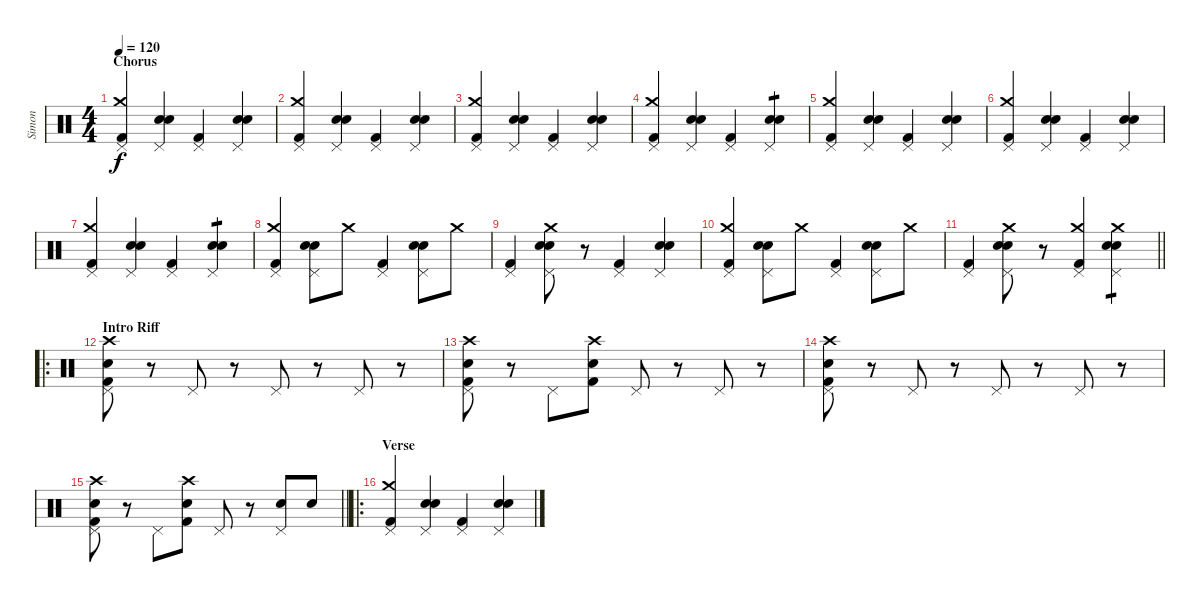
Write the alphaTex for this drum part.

\track ("Simon" "Simon") {instrument percussion}
\staff {score}
\articulation defaults
\ts (4 4)
\section ("" "Chorus")
\tempo 120
\clef neutral
\ks c
("Kick (hit) 2" "Crash medium (hit)" "Pedal Hi-Hat (hit)").4{dy f} ("Snare (hit) 2" "Electric Snare (hit)" "Pedal Hi-Hat (hit)").4 ("Kick (hit) 2" "Pedal Hi-Hat (hit)").4 ("Snare (hit) 2" "Electric Snare (hit)" "Pedal Hi-Hat (hit)").4 |
("Kick (hit) 2" "Crash medium (hit)" "Pedal Hi-Hat (hit)").4 ("Snare (hit) 2" "Electric Snare (hit)" "Pedal Hi-Hat (hit)").4 ("Kick (hit) 2" "Pedal Hi-Hat (hit)").4 ("Snare (hit) 2" "Electric Snare (hit)" "Pedal Hi-Hat (hit)").4 |
("Kick (hit) 2" "Crash medium (hit)" "Pedal Hi-Hat (hit)").4 ("Snare (hit) 2" "Electric Snare (hit)" "Pedal Hi-Hat (hit)").4 ("Kick (hit) 2" "Pedal Hi-Hat (hit)").4 ("Snare (hit) 2" "Electric Snare (hit)" "Pedal Hi-Hat (hit)").4 |
("Kick (hit) 2" "Crash medium (hit)" "Pedal Hi-Hat (hit)").4 ("Snare (hit) 2" "Electric Snare (hit)" "Pedal Hi-Hat (hit)").4 ("Kick (hit) 2" "Pedal Hi-Hat (hit)").4 ("Snare (hit) 2" "Electric Snare (hit)" "Pedal Hi-Hat (hit)").4{tp 1} |
("Kick (hit) 2" "Crash medium (hit)" "Pedal Hi-Hat (hit)").4 ("Snare (hit) 2" "Electric Snare (hit)" "Pedal Hi-Hat (hit)").4 ("Kick (hit) 2" "Pedal Hi-Hat (hit)").4 ("Snare (hit) 2" "Electric Snare (hit)" "Pedal Hi-Hat (hit)").4 |
("Kick (hit) 2" "Crash medium (hit)" "Pedal Hi-Hat (hit)").4 ("Snare (hit) 2" "Electric Snare (hit)" "Pedal Hi-Hat (hit)").4 ("Kick (hit) 2" "Pedal Hi-Hat (hit)").4 ("Snare (hit) 2" "Electric Snare (hit)" "Pedal Hi-Hat (hit)").4 |
("Kick (hit) 2" "Crash medium (hit)" "Pedal Hi-Hat (hit)").4 ("Snare (hit) 2" "Electric Snare (hit)" "Pedal Hi-Hat (hit)").4 ("Kick (hit) 2" "Pedal Hi-Hat (hit)").4 ("Snare (hit) 2" "Electric Snare (hit)" "Pedal Hi-Hat (hit)").4{tp 1} |
("Kick (hit) 2" "Crash medium (hit)" "Pedal Hi-Hat (hit)").4 ("Snare (hit) 2" "Electric Snare (hit)" "Pedal Hi-Hat (hit)").8 "Crash medium (hit)".8 ("Kick (hit) 2" "Pedal Hi-Hat (hit)").4 ("Snare (hit) 2" "Electric Snare (hit)" "Pedal Hi-Hat (hit)").8 "Crash medium (hit)".8 |
("Kick (hit) 2" "Pedal Hi-Hat (hit)").4 ("Snare (hit) 2" "Electric Snare (hit)" "Crash medium (hit)" "Pedal Hi-Hat (hit)").8 r.8 ("Kick (hit) 2" "Pedal Hi-Hat (hit)").4 ("Snare (hit) 2" "Electric Snare (hit)" "Pedal Hi-Hat (hit)").4 |
("Kick (hit) 2" "Crash medium (hit)" "Pedal Hi-Hat (hit)").4 ("Snare (hit) 2" "Electric Snare (hit)" "Pedal Hi-Hat (hit)").8 "Crash medium (hit)".8 ("Kick (hit) 2" "Pedal Hi-Hat (hit)").4 ("Snare (hit) 2" "Electric Snare (hit)" "Pedal Hi-Hat (hit)").8 "Crash medium (hit)".8 |
\barLineRight lightlight
("Kick (hit) 2" "Pedal Hi-Hat (hit)").4 ("Snare (hit) 2" "Electric Snare (hit)" "Crash medium (hit)" "Pedal Hi-Hat (hit)").8 r.8 ("Kick (hit) 2" "Crash medium (hit)" "Pedal Hi-Hat (hit)").4 ("Snare (hit) 2" "Electric Snare (hit)" "Crash medium (hit)" "Pedal Hi-Hat (hit)").4{tp 1} |
\ro
\section ("" "Intro Riff")
("Kick (hit) 2" "Snare (hit) 2" "Crash high (hit)" "Pedal Hi-Hat (hit)").8 r.8 "Pedal Hi-Hat (hit)".8 r.8 "Pedal Hi-Hat (hit)".8 r.8 "Pedal Hi-Hat (hit)".8 r.8 |
("Snare (hit) 2" "Kick (hit) 2" "Crash high (hit)" "Pedal Hi-Hat (hit)").8 r.8 "Pedal Hi-Hat (hit)".8 ("Kick (hit) 2" "Snare (hit) 2" "Crash high (hit)").8 "Pedal Hi-Hat (hit)".8 r.8 "Pedal Hi-Hat (hit)".8 r.8 |
("Kick (hit) 2" "Snare (hit) 2" "Crash high (hit)" "Pedal Hi-Hat (hit)").8 r.8 "Pedal Hi-Hat (hit)".8 r.8 "Pedal Hi-Hat (hit)".8 r.8 "Pedal Hi-Hat (hit)".8 r.8 |
\barLineRight lightlight
("Snare (hit) 2" "Kick (hit) 2" "Crash high (hit)" "Pedal Hi-Hat (hit)").8 r.8 "Pedal Hi-Hat (hit)".8 ("Kick (hit) 2" "Snare (hit) 2" "Crash high (hit)").8 "Pedal Hi-Hat (hit)".8 r.8 ("Electric Snare (hit)" "Pedal Hi-Hat (hit)").8 "Electric Snare (hit)".8 |
\ro
\section ("" "Verse")
("Kick (hit) 2" "Crash medium (hit)" "Pedal Hi-Hat (hit)").4 ("Snare (hit) 2" "Electric Snare (hit)" "Pedal Hi-Hat (hit)").4 ("Kick (hit) 2" "Pedal Hi-Hat (hit)").4 ("Snare (hit) 2" "Electric Snare (hit)" "Pedal Hi-Hat (hit)").4
